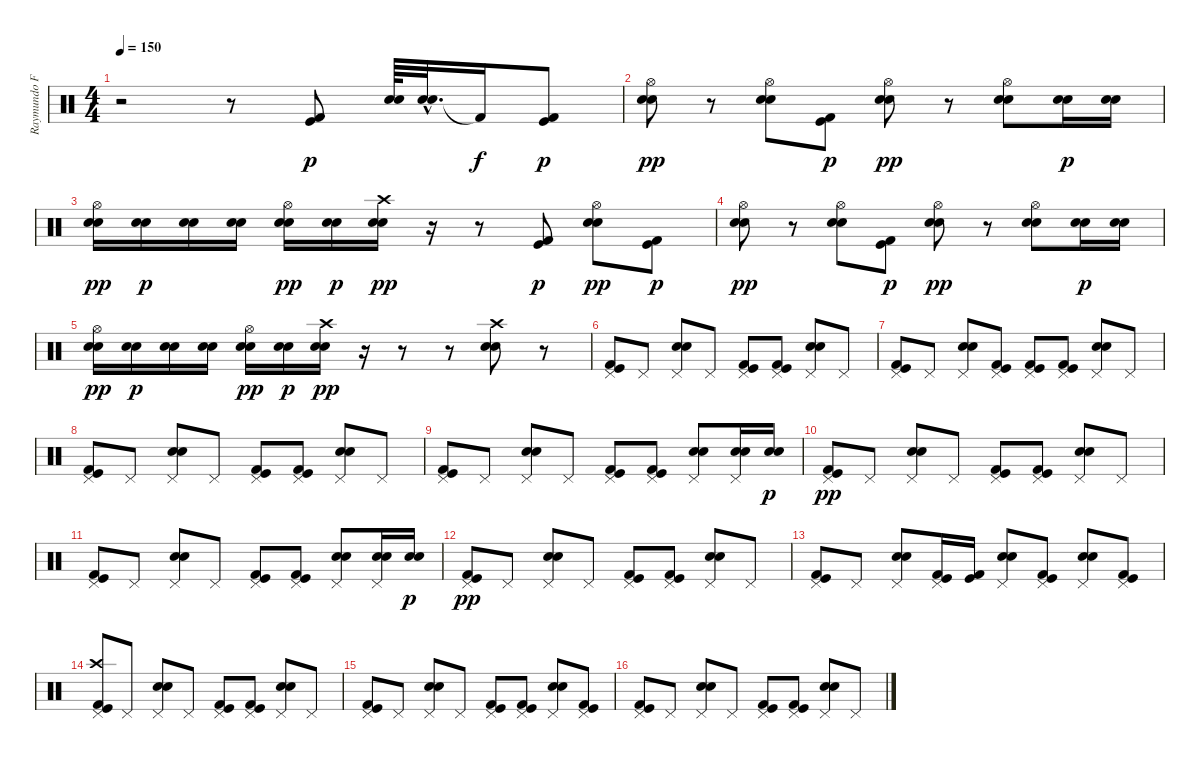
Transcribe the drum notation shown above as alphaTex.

\track ("Raymundo Fajardo (Bateria)" "Raymundo F") {instrument percussion}
\staff {score}
\articulation defaults
\ts (4 4)
\tempo 150
\clef neutral
\ks c
r.2{dy p} r.8 ("Kick (hit) 2" "Kick (hit)").8 ("Snare (hit) 2" "Electric Snare (hit)").64 ("Snare (hit) 2"{hac} "Electric Snare (hit)"{hac}).32{d} "Kick (hit) 2"{t}.16{dy f} ("Kick (hit)" "Kick (hit) 2").8{dy p} |
("Electric Snare (hit)" "Snare (hit) 2" "Hi-Hat (open)").8{dy pp} r.8 ("Electric Snare (hit)" "Snare (hit) 2" "Hi-Hat (open)").8 ("Kick (hit) 2" "Kick (hit)").8{dy p} ("Electric Snare (hit)" "Snare (hit) 2" "Hi-Hat (open)").8{dy pp} r.8 ("Electric Snare (hit)" "Snare (hit) 2" "Hi-Hat (open)").8 ("Electric Snare (hit)" "Snare (hit) 2").16{dy p} ("Electric Snare (hit)" "Snare (hit) 2").16 |
("Electric Snare (hit)" "Snare (hit) 2" "Hi-Hat (open)").16{dy pp} ("Electric Snare (hit)" "Snare (hit) 2").16{dy p} ("Electric Snare (hit)" "Snare (hit) 2").16 ("Electric Snare (hit)" "Snare (hit) 2").16 ("Electric Snare (hit)" "Snare (hit) 2" "Hi-Hat (open)").16{dy pp} ("Electric Snare (hit)" "Snare (hit) 2").16{dy p} ("Electric Snare (hit)" "Snare (hit) 2" "Crash high (hit)").16{dy pp} r.16 r.8 ("Kick (hit) 2" "Kick (hit)").8{dy p} ("Electric Snare (hit)" "Snare (hit) 2" "Hi-Hat (open)").8{dy pp} ("Kick (hit) 2" "Kick (hit)").8{dy p} |
("Electric Snare (hit)" "Snare (hit) 2" "Hi-Hat (open)").8{dy pp} r.8 ("Electric Snare (hit)" "Snare (hit) 2" "Hi-Hat (open)").8 ("Kick (hit) 2" "Kick (hit)").8{dy p} ("Electric Snare (hit)" "Snare (hit) 2" "Hi-Hat (open)").8{dy pp} r.8 ("Electric Snare (hit)" "Snare (hit) 2" "Hi-Hat (open)").8 ("Electric Snare (hit)" "Snare (hit) 2").16{dy p} ("Electric Snare (hit)" "Snare (hit) 2").16 |
("Electric Snare (hit)" "Snare (hit) 2" "Hi-Hat (open)").16{dy pp} ("Electric Snare (hit)" "Snare (hit) 2").16{dy p} ("Electric Snare (hit)" "Snare (hit) 2").16 ("Electric Snare (hit)" "Snare (hit) 2").16 ("Electric Snare (hit)" "Snare (hit) 2" "Hi-Hat (open)").16{dy pp} ("Electric Snare (hit)" "Snare (hit) 2").16{dy p} ("Electric Snare (hit)" "Snare (hit) 2" "Crash high (hit)").16{dy pp} r.16 r.8 r.8 ("Electric Snare (hit)" "Snare (hit) 2" "Crash high (hit)").8 r.8 |
("Kick (hit) 2" "Kick (hit)" "Pedal Hi-Hat (hit)").8 "Pedal Hi-Hat (hit)".8 ("Electric Snare (hit)" "Snare (hit) 2" "Pedal Hi-Hat (hit)").8 "Pedal Hi-Hat (hit)".8 ("Kick (hit) 2" "Kick (hit)" "Pedal Hi-Hat (hit)").8 ("Kick (hit) 2" "Kick (hit)" "Pedal Hi-Hat (hit)").8 ("Electric Snare (hit)" "Snare (hit) 2" "Pedal Hi-Hat (hit)").8 "Pedal Hi-Hat (hit)".8 |
("Kick (hit) 2" "Kick (hit)" "Pedal Hi-Hat (hit)").8 "Pedal Hi-Hat (hit)".8 ("Electric Snare (hit)" "Snare (hit) 2" "Pedal Hi-Hat (hit)").8 ("Kick (hit) 2" "Kick (hit)" "Pedal Hi-Hat (hit)").8 ("Kick (hit) 2" "Kick (hit)" "Pedal Hi-Hat (hit)").8 ("Kick (hit) 2" "Kick (hit)" "Pedal Hi-Hat (hit)").8 ("Electric Snare (hit)" "Snare (hit) 2" "Pedal Hi-Hat (hit)").8 "Pedal Hi-Hat (hit)".8 |
("Kick (hit) 2" "Kick (hit)" "Pedal Hi-Hat (hit)").8 "Pedal Hi-Hat (hit)".8 ("Electric Snare (hit)" "Snare (hit) 2" "Pedal Hi-Hat (hit)").8 "Pedal Hi-Hat (hit)".8 ("Kick (hit) 2" "Kick (hit)" "Pedal Hi-Hat (hit)").8 ("Kick (hit) 2" "Kick (hit)" "Pedal Hi-Hat (hit)").8 ("Electric Snare (hit)" "Snare (hit) 2" "Pedal Hi-Hat (hit)").8 "Pedal Hi-Hat (hit)".8 |
("Kick (hit) 2" "Kick (hit)" "Pedal Hi-Hat (hit)").8 "Pedal Hi-Hat (hit)".8 ("Electric Snare (hit)" "Snare (hit) 2" "Pedal Hi-Hat (hit)").8 "Pedal Hi-Hat (hit)".8 ("Kick (hit) 2" "Kick (hit)" "Pedal Hi-Hat (hit)").8 ("Kick (hit) 2" "Kick (hit)" "Pedal Hi-Hat (hit)").8 ("Electric Snare (hit)" "Snare (hit) 2" "Pedal Hi-Hat (hit)").8 ("Electric Snare (hit)" "Snare (hit) 2" "Pedal Hi-Hat (hit)").16 ("Electric Snare (hit)" "Snare (hit) 2").16{dy p} |
("Kick (hit) 2" "Kick (hit)" "Pedal Hi-Hat (hit)").8{dy pp} "Pedal Hi-Hat (hit)".8 ("Electric Snare (hit)" "Snare (hit) 2" "Pedal Hi-Hat (hit)").8 "Pedal Hi-Hat (hit)".8 ("Kick (hit) 2" "Kick (hit)" "Pedal Hi-Hat (hit)").8 ("Kick (hit) 2" "Kick (hit)" "Pedal Hi-Hat (hit)").8 ("Electric Snare (hit)" "Snare (hit) 2" "Pedal Hi-Hat (hit)").8 "Pedal Hi-Hat (hit)".8 |
("Kick (hit) 2" "Kick (hit)" "Pedal Hi-Hat (hit)").8 "Pedal Hi-Hat (hit)".8 ("Electric Snare (hit)" "Snare (hit) 2" "Pedal Hi-Hat (hit)").8 "Pedal Hi-Hat (hit)".8 ("Kick (hit) 2" "Kick (hit)" "Pedal Hi-Hat (hit)").8 ("Kick (hit) 2" "Kick (hit)" "Pedal Hi-Hat (hit)").8 ("Electric Snare (hit)" "Snare (hit) 2" "Pedal Hi-Hat (hit)").8 ("Electric Snare (hit)" "Snare (hit) 2" "Pedal Hi-Hat (hit)").16 ("Electric Snare (hit)" "Snare (hit) 2").16{dy p} |
("Kick (hit) 2" "Kick (hit)" "Pedal Hi-Hat (hit)").8{dy pp} "Pedal Hi-Hat (hit)".8 ("Electric Snare (hit)" "Snare (hit) 2" "Pedal Hi-Hat (hit)").8 "Pedal Hi-Hat (hit)".8 ("Kick (hit) 2" "Kick (hit)" "Pedal Hi-Hat (hit)").8 ("Kick (hit) 2" "Kick (hit)" "Pedal Hi-Hat (hit)").8 ("Electric Snare (hit)" "Snare (hit) 2" "Pedal Hi-Hat (hit)").8 "Pedal Hi-Hat (hit)".8 |
("Kick (hit) 2" "Kick (hit)" "Pedal Hi-Hat (hit)").8 "Pedal Hi-Hat (hit)".8 ("Electric Snare (hit)" "Snare (hit) 2" "Pedal Hi-Hat (hit)").8 ("Kick (hit) 2" "Kick (hit)" "Pedal Hi-Hat (hit)").16 ("Kick (hit) 2" "Kick (hit)").16 ("Electric Snare (hit)" "Snare (hit) 2" "Pedal Hi-Hat (hit)").8 ("Kick (hit) 2" "Kick (hit)" "Pedal Hi-Hat (hit)").8 ("Electric Snare (hit)" "Snare (hit) 2" "Pedal Hi-Hat (hit)").8 ("Kick (hit) 2" "Kick (hit)" "Pedal Hi-Hat (hit)").8 |
("Kick (hit) 2" "Kick (hit)" "Crash high (hit)" "Pedal Hi-Hat (hit)").8 "Pedal Hi-Hat (hit)".8 ("Electric Snare (hit)" "Snare (hit) 2" "Pedal Hi-Hat (hit)").8 "Pedal Hi-Hat (hit)".8 ("Kick (hit) 2" "Kick (hit)" "Pedal Hi-Hat (hit)").8 ("Kick (hit) 2" "Kick (hit)" "Pedal Hi-Hat (hit)").8 ("Electric Snare (hit)" "Snare (hit) 2" "Pedal Hi-Hat (hit)").8 "Pedal Hi-Hat (hit)".8 |
("Kick (hit) 2" "Kick (hit)" "Pedal Hi-Hat (hit)").8 "Pedal Hi-Hat (hit)".8 ("Electric Snare (hit)" "Snare (hit) 2" "Pedal Hi-Hat (hit)").8 "Pedal Hi-Hat (hit)".8 ("Kick (hit) 2" "Kick (hit)" "Pedal Hi-Hat (hit)").8 ("Kick (hit) 2" "Kick (hit)" "Pedal Hi-Hat (hit)").8 ("Electric Snare (hit)" "Snare (hit) 2" "Pedal Hi-Hat (hit)").8 ("Kick (hit) 2" "Kick (hit)" "Pedal Hi-Hat (hit)").8 |
("Kick (hit) 2" "Kick (hit)" "Pedal Hi-Hat (hit)").8 "Pedal Hi-Hat (hit)".8 ("Electric Snare (hit)" "Snare (hit) 2" "Pedal Hi-Hat (hit)").8 "Pedal Hi-Hat (hit)".8 ("Kick (hit) 2" "Kick (hit)" "Pedal Hi-Hat (hit)").8 ("Kick (hit) 2" "Kick (hit)" "Pedal Hi-Hat (hit)").8 ("Electric Snare (hit)" "Snare (hit) 2" "Pedal Hi-Hat (hit)").8 "Pedal Hi-Hat (hit)".8
